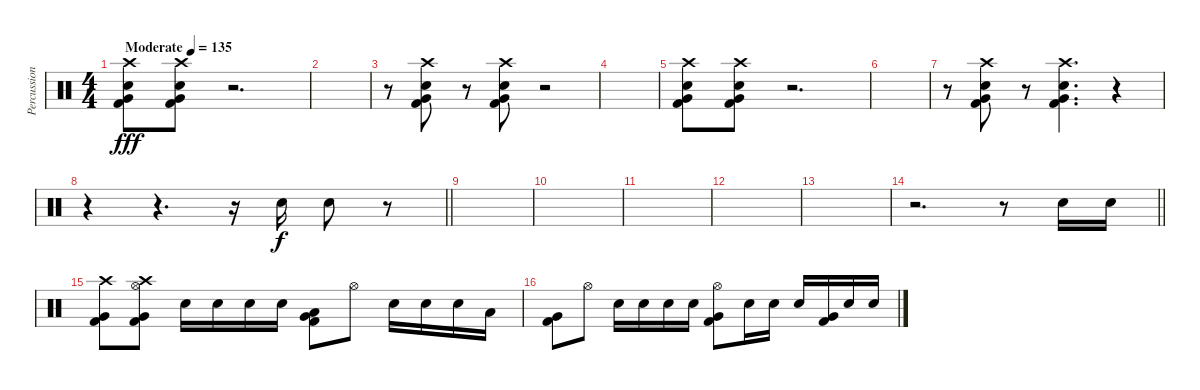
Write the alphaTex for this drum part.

\track ("Percussion" "Percussion") {instrument percussion}
\staff {score}
\articulation defaults
\ts (4 4)
\tempo (135 "Moderate")
\clef neutral
\ks c
("Crash high (hit)" "Electric Snare (hit)" "Very Low Tom (hit)" "Kick (hit) 2").8{dy fff} ("Crash high (hit)" "Electric Snare (hit)" "Very Low Tom (hit)" "Kick (hit) 2").8 r.2{d} |
|
r.8 ("Crash high (hit)" "Electric Snare (hit)" "Very Low Tom (hit)" "Kick (hit) 2").8 r.8 ("Crash high (hit)" "Electric Snare (hit)" "Very Low Tom (hit)" "Kick (hit) 2").8 r.2 |
|
("Crash high (hit)" "Electric Snare (hit)" "Very Low Tom (hit)" "Kick (hit) 2").8 ("Crash high (hit)" "Electric Snare (hit)" "Very Low Tom (hit)" "Kick (hit) 2").8 r.2{d} |
|
r.8 ("Crash high (hit)" "Electric Snare (hit)" "Very Low Tom (hit)" "Kick (hit) 2").8 r.8 ("Crash high (hit)" "Electric Snare (hit)" "Very Low Tom (hit)" "Kick (hit) 2").4{d} r.4 |
\barLineRight lightlight
r.4 r.4{d} r.16 "Electric Snare (hit)".16{dy f} "Electric Snare (hit)".8 r.8 |
|
|
|
|
|
\barLineRight lightlight
r.2{d} r.8 "Electric Snare (hit)".16 "Electric Snare (hit)".16 |
("Crash high (hit)" "Very Low Tom (hit)" "Kick (hit) 2").8 ("Crash high (hit)" "Hi-Hat (open)" "Very Low Tom (hit)" "Kick (hit) 2").8 "Electric Snare (hit)".16 "Electric Snare (hit)".16 "Electric Snare (hit)".16 "Electric Snare (hit)".16 ("Low Tom (hit)" "Very Low Tom (hit)" "Kick (hit) 2").8 "Hi-Hat (open)".8 "Electric Snare (hit)".16 "Electric Snare (hit)".16 "Electric Snare (hit)".16 "Low Tom (hit)".16 |
("Very Low Tom (hit)" "Kick (hit) 2").8 "Hi-Hat (open)".8 "Electric Snare (hit)".16 "Electric Snare (hit)".16 "Electric Snare (hit)".16 "Electric Snare (hit)".16 ("Hi-Hat (open)" "Very Low Tom (hit)" "Kick (hit) 2").8 "Electric Snare (hit)".16 "Electric Snare (hit)".16 "Electric Snare (hit)".16 ("Very Low Tom (hit)" "Kick (hit) 2").16 "Electric Snare (hit)".16 "Electric Snare (hit)".16
